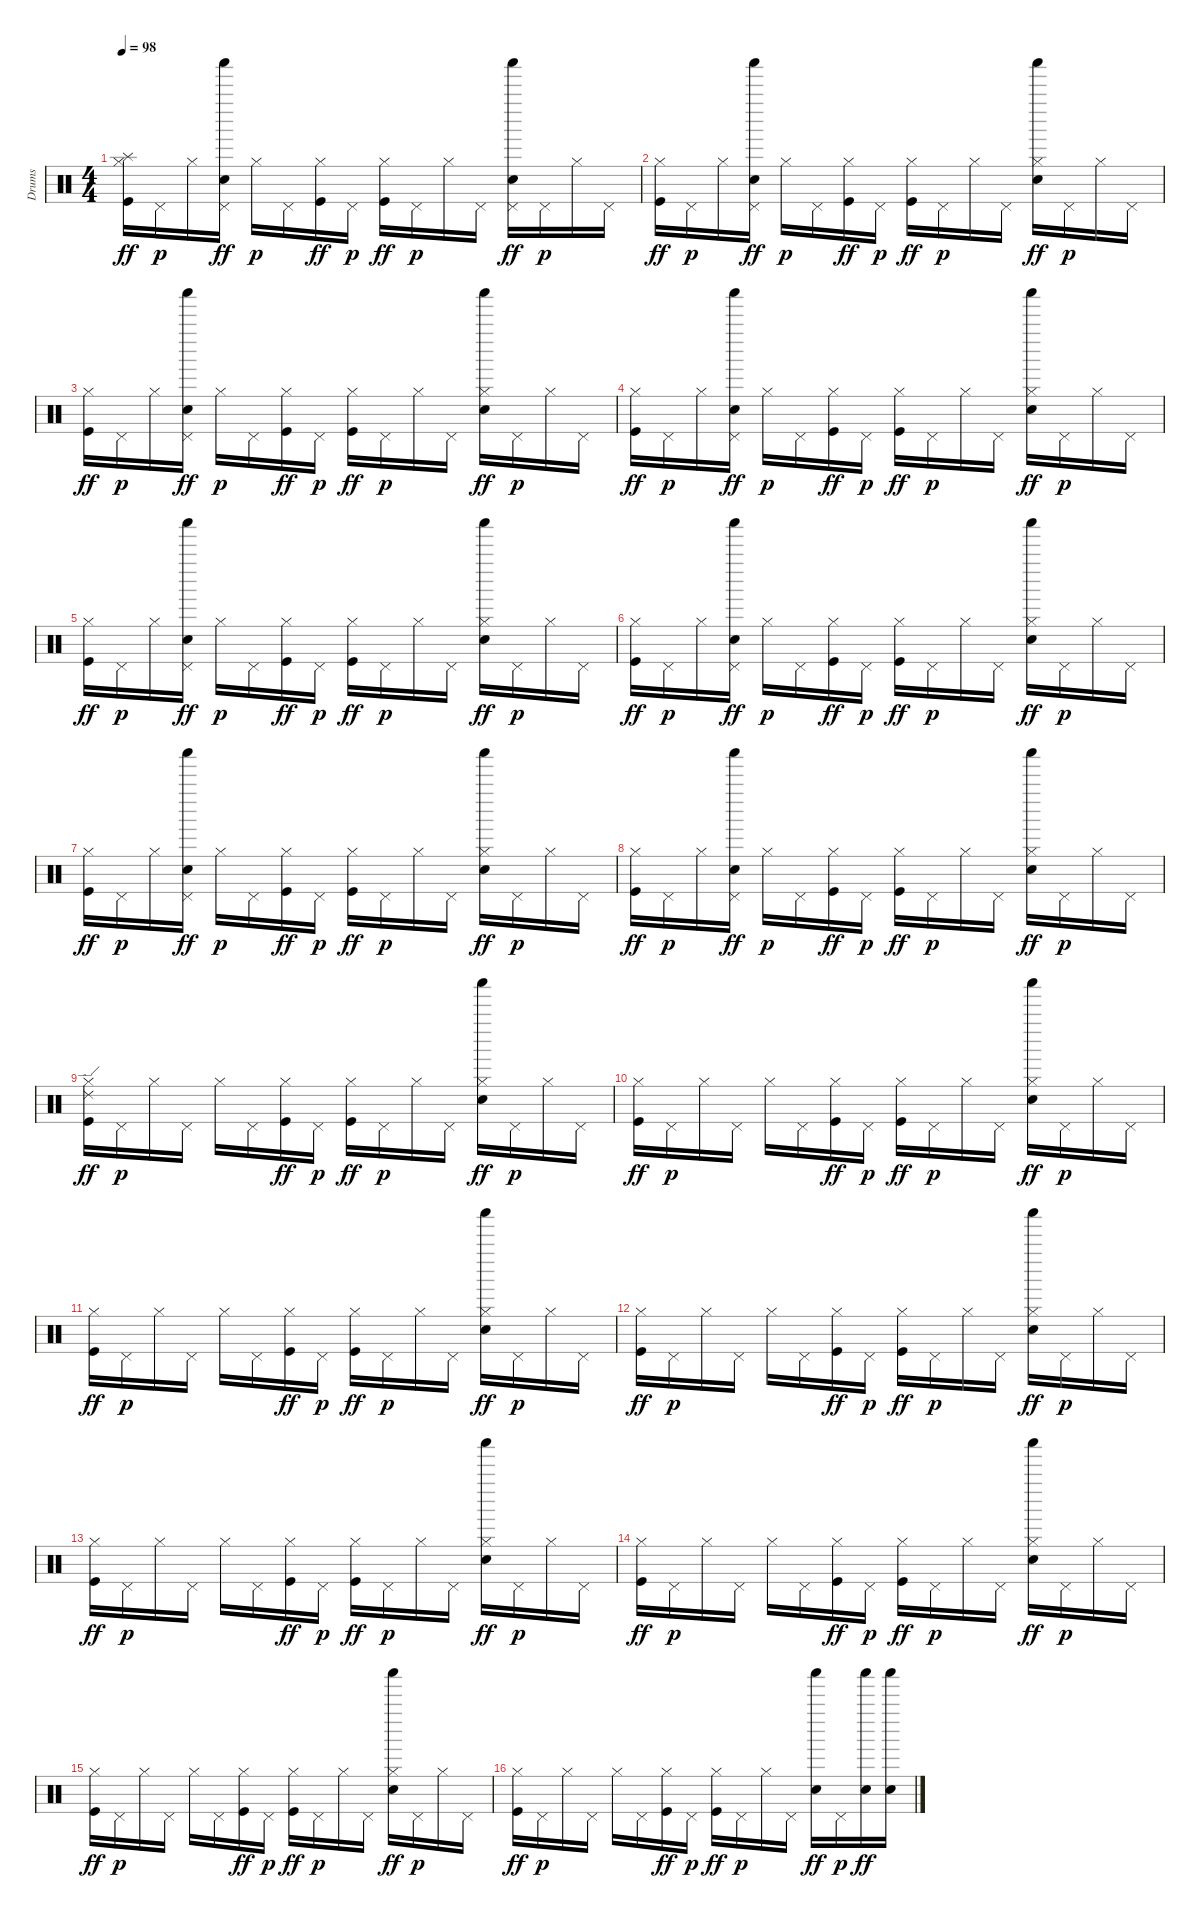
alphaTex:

\track ("Drums" "Drums") {instrument percussion}
\staff {score}
\articulation defaults
\ts (4 4)
\tempo 98
\clef neutral
\ks c
("Hi-Hat (closed)" "Kick (hit)" "Splash (hit)").16{dy ff} "Pedal Hi-Hat (hit)".16{dy p} "Hi-Hat (closed)".16 ("Pedal Hi-Hat (hit)" "Shaker (hit)" "Electric Snare (hit)").16{dy ff} "Hi-Hat (closed)".16{dy p} "Pedal Hi-Hat (hit)".16 ("Hi-Hat (closed)" "Kick (hit)").16{dy ff} "Pedal Hi-Hat (hit)".16{dy p} ("Hi-Hat (closed)" "Kick (hit)").16{dy ff} "Pedal Hi-Hat (hit)".16{dy p} "Hi-Hat (closed)".16 "Pedal Hi-Hat (hit)".16 ("Pedal Hi-Hat (hit)" "Shaker (hit)" "Electric Snare (hit)").16{dy ff} "Pedal Hi-Hat (hit)".16{dy p} "Hi-Hat (closed)".16 "Pedal Hi-Hat (hit)".16 |
("Hi-Hat (closed)" "Kick (hit)").16{dy ff} "Pedal Hi-Hat (hit)".16{dy p} "Hi-Hat (closed)".16 ("Pedal Hi-Hat (hit)" "Shaker (hit)" "Electric Snare (hit)").16{dy ff} "Hi-Hat (closed)".16{dy p} "Pedal Hi-Hat (hit)".16 ("Hi-Hat (closed)" "Kick (hit)").16{dy ff} "Pedal Hi-Hat (hit)".16{dy p} ("Hi-Hat (closed)" "Kick (hit)").16{dy ff} "Pedal Hi-Hat (hit)".16{dy p} "Hi-Hat (closed)".16 "Pedal Hi-Hat (hit)".16 ("Hi-Hat (closed)" "Shaker (hit)" "Electric Snare (hit)").16{dy ff} "Pedal Hi-Hat (hit)".16{dy p} "Hi-Hat (closed)".16 "Pedal Hi-Hat (hit)".16 |
("Hi-Hat (closed)" "Kick (hit)").16{dy ff} "Pedal Hi-Hat (hit)".16{dy p} "Hi-Hat (closed)".16 ("Pedal Hi-Hat (hit)" "Shaker (hit)" "Electric Snare (hit)").16{dy ff} "Hi-Hat (closed)".16{dy p} "Pedal Hi-Hat (hit)".16 ("Hi-Hat (closed)" "Kick (hit)").16{dy ff} "Pedal Hi-Hat (hit)".16{dy p} ("Hi-Hat (closed)" "Kick (hit)").16{dy ff} "Pedal Hi-Hat (hit)".16{dy p} "Hi-Hat (closed)".16 "Pedal Hi-Hat (hit)".16 ("Hi-Hat (closed)" "Shaker (hit)" "Electric Snare (hit)").16{dy ff} "Pedal Hi-Hat (hit)".16{dy p} "Hi-Hat (closed)".16 "Pedal Hi-Hat (hit)".16 |
("Hi-Hat (closed)" "Kick (hit)").16{dy ff} "Pedal Hi-Hat (hit)".16{dy p} "Hi-Hat (closed)".16 ("Pedal Hi-Hat (hit)" "Shaker (hit)" "Electric Snare (hit)").16{dy ff} "Hi-Hat (closed)".16{dy p} "Pedal Hi-Hat (hit)".16 ("Hi-Hat (closed)" "Kick (hit)").16{dy ff} "Pedal Hi-Hat (hit)".16{dy p} ("Hi-Hat (closed)" "Kick (hit)").16{dy ff} "Pedal Hi-Hat (hit)".16{dy p} "Hi-Hat (closed)".16 "Pedal Hi-Hat (hit)".16 ("Hi-Hat (closed)" "Shaker (hit)" "Electric Snare (hit)").16{dy ff} "Pedal Hi-Hat (hit)".16{dy p} "Hi-Hat (closed)".16 "Pedal Hi-Hat (hit)".16 |
("Hi-Hat (closed)" "Kick (hit)").16{dy ff} "Pedal Hi-Hat (hit)".16{dy p} "Hi-Hat (closed)".16 ("Pedal Hi-Hat (hit)" "Shaker (hit)" "Electric Snare (hit)").16{dy ff} "Hi-Hat (closed)".16{dy p} "Pedal Hi-Hat (hit)".16 ("Hi-Hat (closed)" "Kick (hit)").16{dy ff} "Pedal Hi-Hat (hit)".16{dy p} ("Hi-Hat (closed)" "Kick (hit)").16{dy ff} "Pedal Hi-Hat (hit)".16{dy p} "Hi-Hat (closed)".16 "Pedal Hi-Hat (hit)".16 ("Hi-Hat (closed)" "Shaker (hit)" "Electric Snare (hit)").16{dy ff} "Pedal Hi-Hat (hit)".16{dy p} "Hi-Hat (closed)".16 "Pedal Hi-Hat (hit)".16 |
("Hi-Hat (closed)" "Kick (hit)").16{dy ff} "Pedal Hi-Hat (hit)".16{dy p} "Hi-Hat (closed)".16 ("Pedal Hi-Hat (hit)" "Shaker (hit)" "Electric Snare (hit)").16{dy ff} "Hi-Hat (closed)".16{dy p} "Pedal Hi-Hat (hit)".16 ("Hi-Hat (closed)" "Kick (hit)").16{dy ff} "Pedal Hi-Hat (hit)".16{dy p} ("Hi-Hat (closed)" "Kick (hit)").16{dy ff} "Pedal Hi-Hat (hit)".16{dy p} "Hi-Hat (closed)".16 "Pedal Hi-Hat (hit)".16 ("Hi-Hat (closed)" "Shaker (hit)" "Electric Snare (hit)").16{dy ff} "Pedal Hi-Hat (hit)".16{dy p} "Hi-Hat (closed)".16 "Pedal Hi-Hat (hit)".16 |
("Hi-Hat (closed)" "Kick (hit)").16{dy ff} "Pedal Hi-Hat (hit)".16{dy p} "Hi-Hat (closed)".16 ("Pedal Hi-Hat (hit)" "Shaker (hit)" "Electric Snare (hit)").16{dy ff} "Hi-Hat (closed)".16{dy p} "Pedal Hi-Hat (hit)".16 ("Hi-Hat (closed)" "Kick (hit)").16{dy ff} "Pedal Hi-Hat (hit)".16{dy p} ("Hi-Hat (closed)" "Kick (hit)").16{dy ff} "Pedal Hi-Hat (hit)".16{dy p} "Hi-Hat (closed)".16 "Pedal Hi-Hat (hit)".16 ("Hi-Hat (closed)" "Shaker (hit)" "Electric Snare (hit)").16{dy ff} "Pedal Hi-Hat (hit)".16{dy p} "Hi-Hat (closed)".16 "Pedal Hi-Hat (hit)".16 |
("Hi-Hat (closed)" "Kick (hit)").16{dy ff} "Pedal Hi-Hat (hit)".16{dy p} "Hi-Hat (closed)".16 ("Pedal Hi-Hat (hit)" "Shaker (hit)" "Electric Snare (hit)").16{dy ff} "Hi-Hat (closed)".16{dy p} "Pedal Hi-Hat (hit)".16 ("Hi-Hat (closed)" "Kick (hit)").16{dy ff} "Pedal Hi-Hat (hit)".16{dy p} ("Hi-Hat (closed)" "Kick (hit)").16{dy ff} "Pedal Hi-Hat (hit)".16{dy p} "Hi-Hat (closed)".16 "Pedal Hi-Hat (hit)".16 ("Hi-Hat (closed)" "Shaker (hit)" "Electric Snare (hit)").16{dy ff} "Pedal Hi-Hat (hit)".16{dy p} "Hi-Hat (closed)".16 "Pedal Hi-Hat (hit)".16 |
("Hi-Hat (closed)" "Kick (hit)" "Ride (edge) 2").16{dy ff} "Pedal Hi-Hat (hit)".16{dy p} "Hi-Hat (closed)".16 "Pedal Hi-Hat (hit)".16 "Hi-Hat (closed)".16 "Pedal Hi-Hat (hit)".16 ("Hi-Hat (closed)" "Kick (hit)").16{dy ff} "Pedal Hi-Hat (hit)".16{dy p} ("Hi-Hat (closed)" "Kick (hit)").16{dy ff} "Pedal Hi-Hat (hit)".16{dy p} "Hi-Hat (closed)".16 "Pedal Hi-Hat (hit)".16 ("Hi-Hat (closed)" "Shaker (hit)" "Electric Snare (hit)").16{dy ff} "Pedal Hi-Hat (hit)".16{dy p} "Hi-Hat (closed)".16 "Pedal Hi-Hat (hit)".16 |
("Hi-Hat (closed)" "Kick (hit)").16{dy ff} "Pedal Hi-Hat (hit)".16{dy p} "Hi-Hat (closed)".16 "Pedal Hi-Hat (hit)".16 "Hi-Hat (closed)".16 "Pedal Hi-Hat (hit)".16 ("Hi-Hat (closed)" "Kick (hit)").16{dy ff} "Pedal Hi-Hat (hit)".16{dy p} ("Hi-Hat (closed)" "Kick (hit)").16{dy ff} "Pedal Hi-Hat (hit)".16{dy p} "Hi-Hat (closed)".16 "Pedal Hi-Hat (hit)".16 ("Hi-Hat (closed)" "Shaker (hit)" "Electric Snare (hit)").16{dy ff} "Pedal Hi-Hat (hit)".16{dy p} "Hi-Hat (closed)".16 "Pedal Hi-Hat (hit)".16 |
("Hi-Hat (closed)" "Kick (hit)").16{dy ff} "Pedal Hi-Hat (hit)".16{dy p} "Hi-Hat (closed)".16 "Pedal Hi-Hat (hit)".16 "Hi-Hat (closed)".16 "Pedal Hi-Hat (hit)".16 ("Hi-Hat (closed)" "Kick (hit)").16{dy ff} "Pedal Hi-Hat (hit)".16{dy p} ("Hi-Hat (closed)" "Kick (hit)").16{dy ff} "Pedal Hi-Hat (hit)".16{dy p} "Hi-Hat (closed)".16 "Pedal Hi-Hat (hit)".16 ("Hi-Hat (closed)" "Shaker (hit)" "Electric Snare (hit)").16{dy ff} "Pedal Hi-Hat (hit)".16{dy p} "Hi-Hat (closed)".16 "Pedal Hi-Hat (hit)".16 |
("Hi-Hat (closed)" "Kick (hit)").16{dy ff} "Pedal Hi-Hat (hit)".16{dy p} "Hi-Hat (closed)".16 "Pedal Hi-Hat (hit)".16 "Hi-Hat (closed)".16 "Pedal Hi-Hat (hit)".16 ("Hi-Hat (closed)" "Kick (hit)").16{dy ff} "Pedal Hi-Hat (hit)".16{dy p} ("Hi-Hat (closed)" "Kick (hit)").16{dy ff} "Pedal Hi-Hat (hit)".16{dy p} "Hi-Hat (closed)".16 "Pedal Hi-Hat (hit)".16 ("Hi-Hat (closed)" "Shaker (hit)" "Electric Snare (hit)").16{dy ff} "Pedal Hi-Hat (hit)".16{dy p} "Hi-Hat (closed)".16 "Pedal Hi-Hat (hit)".16 |
("Hi-Hat (closed)" "Kick (hit)").16{dy ff} "Pedal Hi-Hat (hit)".16{dy p} "Hi-Hat (closed)".16 "Pedal Hi-Hat (hit)".16 "Hi-Hat (closed)".16 "Pedal Hi-Hat (hit)".16 ("Hi-Hat (closed)" "Kick (hit)").16{dy ff} "Pedal Hi-Hat (hit)".16{dy p} ("Hi-Hat (closed)" "Kick (hit)").16{dy ff} "Pedal Hi-Hat (hit)".16{dy p} "Hi-Hat (closed)".16 "Pedal Hi-Hat (hit)".16 ("Hi-Hat (closed)" "Shaker (hit)" "Electric Snare (hit)").16{dy ff} "Pedal Hi-Hat (hit)".16{dy p} "Hi-Hat (closed)".16 "Pedal Hi-Hat (hit)".16 |
("Hi-Hat (closed)" "Kick (hit)").16{dy ff} "Pedal Hi-Hat (hit)".16{dy p} "Hi-Hat (closed)".16 "Pedal Hi-Hat (hit)".16 "Hi-Hat (closed)".16 "Pedal Hi-Hat (hit)".16 ("Hi-Hat (closed)" "Kick (hit)").16{dy ff} "Pedal Hi-Hat (hit)".16{dy p} ("Hi-Hat (closed)" "Kick (hit)").16{dy ff} "Pedal Hi-Hat (hit)".16{dy p} "Hi-Hat (closed)".16 "Pedal Hi-Hat (hit)".16 ("Hi-Hat (closed)" "Shaker (hit)" "Electric Snare (hit)").16{dy ff} "Pedal Hi-Hat (hit)".16{dy p} "Hi-Hat (closed)".16 "Pedal Hi-Hat (hit)".16 |
("Hi-Hat (closed)" "Kick (hit)").16{dy ff} "Pedal Hi-Hat (hit)".16{dy p} "Hi-Hat (closed)".16 "Pedal Hi-Hat (hit)".16 "Hi-Hat (closed)".16 "Pedal Hi-Hat (hit)".16 ("Hi-Hat (closed)" "Kick (hit)").16{dy ff} "Pedal Hi-Hat (hit)".16{dy p} ("Hi-Hat (closed)" "Kick (hit)").16{dy ff} "Pedal Hi-Hat (hit)".16{dy p} "Hi-Hat (closed)".16 "Pedal Hi-Hat (hit)".16 ("Hi-Hat (closed)" "Shaker (hit)" "Electric Snare (hit)").16{dy ff} "Pedal Hi-Hat (hit)".16{dy p} "Hi-Hat (closed)".16 "Pedal Hi-Hat (hit)".16 |
("Hi-Hat (closed)" "Kick (hit)").16{dy ff} "Pedal Hi-Hat (hit)".16{dy p} "Hi-Hat (closed)".16 "Pedal Hi-Hat (hit)".16 "Hi-Hat (closed)".16 "Pedal Hi-Hat (hit)".16 ("Hi-Hat (closed)" "Kick (hit)").16{dy ff} "Pedal Hi-Hat (hit)".16{dy p} ("Hi-Hat (closed)" "Kick (hit)").16{dy ff} "Pedal Hi-Hat (hit)".16{dy p} "Hi-Hat (closed)".16 "Pedal Hi-Hat (hit)".16 ("Shaker (hit)" "Electric Snare (hit)").16{dy ff} "Pedal Hi-Hat (hit)".16{dy p} ("Shaker (hit)" "Electric Snare (hit)").16{dy ff} ("Shaker (hit)" "Electric Snare (hit)").16
